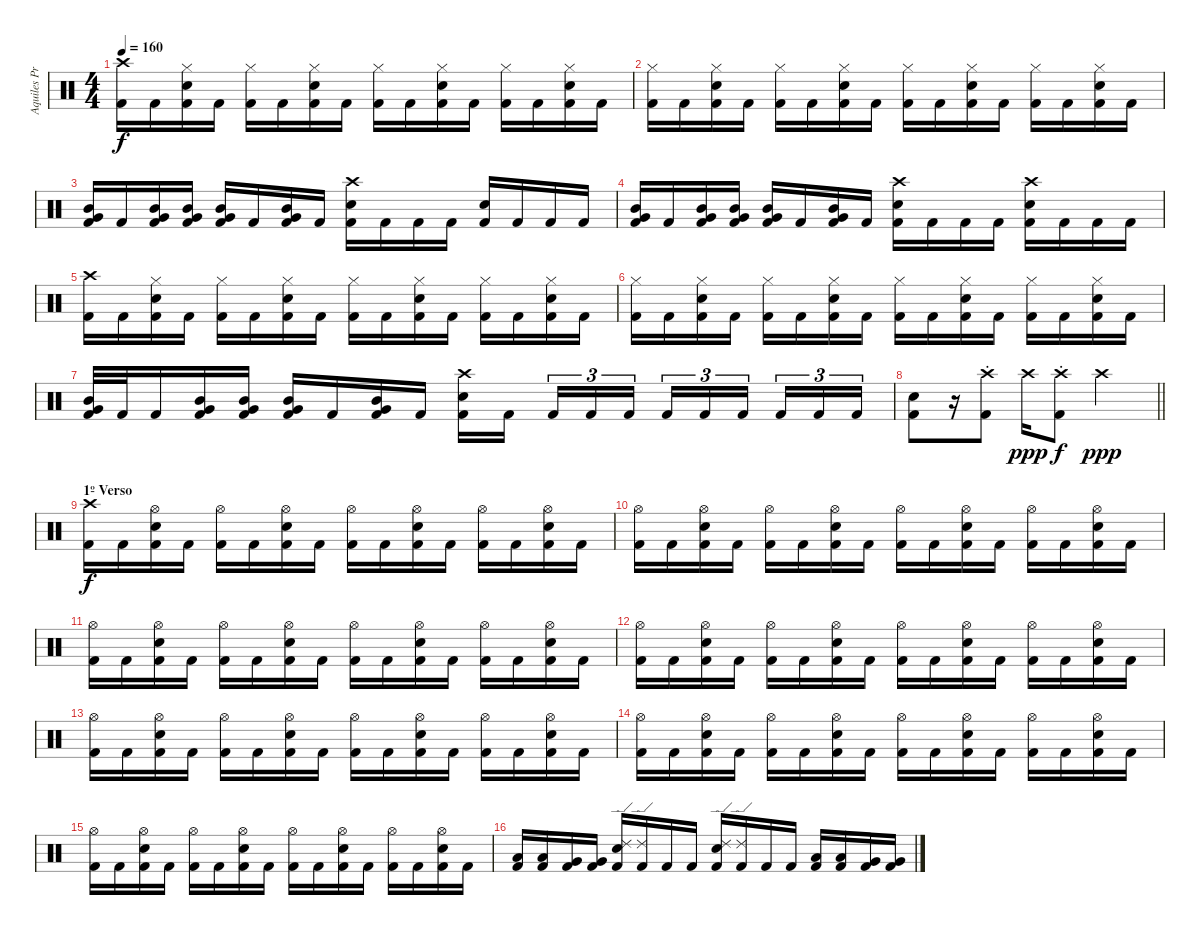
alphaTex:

\track ("Aquiles Priester" "Aquiles Pr") {instrument percussion}
\staff {score}
\articulation defaults
\ts (4 4)
\tempo 160
\clef neutral
\ks c
("Crash high (hit)" "Kick (hit) 2").16{dy f} "Kick (hit) 2".16 ("Hi-Hat (closed)" "Electric Snare (hit)" "Kick (hit) 2").16 "Kick (hit) 2".16 ("Hi-Hat (closed)" "Kick (hit) 2").16 "Kick (hit) 2".16 ("Hi-Hat (closed)" "Electric Snare (hit)" "Kick (hit) 2").16 "Kick (hit) 2".16 ("Hi-Hat (closed)" "Kick (hit) 2").16 "Kick (hit) 2".16 ("Hi-Hat (closed)" "Electric Snare (hit)" "Kick (hit) 2").16 "Kick (hit) 2".16 ("Hi-Hat (closed)" "Kick (hit) 2").16 "Kick (hit) 2".16 ("Hi-Hat (closed)" "Electric Snare (hit)" "Kick (hit) 2").16 "Kick (hit) 2".16 |
("Hi-Hat (closed)" "Kick (hit) 2").16 "Kick (hit) 2".16 ("Hi-Hat (closed)" "Electric Snare (hit)" "Kick (hit) 2").16 "Kick (hit) 2".16 ("Hi-Hat (closed)" "Kick (hit) 2").16 "Kick (hit) 2".16 ("Hi-Hat (closed)" "Electric Snare (hit)" "Kick (hit) 2").16 "Kick (hit) 2".16 ("Hi-Hat (closed)" "Kick (hit) 2").16 "Kick (hit) 2".16 ("Hi-Hat (closed)" "Electric Snare (hit)" "Kick (hit) 2").16 "Kick (hit) 2".16 ("Hi-Hat (closed)" "Kick (hit) 2").16 "Kick (hit) 2".16 ("Hi-Hat (closed)" "Electric Snare (hit)" "Kick (hit) 2").16 "Kick (hit) 2".16 |
("Mid Tom (hit)" "Very Low Tom (hit)" "Kick (hit) 2").16 "Kick (hit) 2".16 ("Mid Tom (hit)" "Very Low Tom (hit)" "Kick (hit) 2").16 ("Mid Tom (hit)" "Very Low Tom (hit)" "Kick (hit) 2").16 ("Mid Tom (hit)" "Very Low Tom (hit)" "Kick (hit) 2").16 "Kick (hit) 2".16 ("Mid Tom (hit)" "Very Low Tom (hit)" "Kick (hit) 2").16 "Kick (hit) 2".16 ("Crash high (hit)" "Electric Snare (hit)" "Kick (hit) 2").16 "Kick (hit) 2".16 "Kick (hit) 2".16 "Kick (hit) 2".16 ("Electric Snare (hit)" "Kick (hit) 2").16 "Kick (hit) 2".16 "Kick (hit) 2".16 "Kick (hit) 2".16 |
("Mid Tom (hit)" "Very Low Tom (hit)" "Kick (hit) 2").16 "Kick (hit) 2".16 ("Mid Tom (hit)" "Very Low Tom (hit)" "Kick (hit) 2").16 ("Mid Tom (hit)" "Very Low Tom (hit)" "Kick (hit) 2").16 ("Mid Tom (hit)" "Very Low Tom (hit)" "Kick (hit) 2").16 "Kick (hit) 2".16 ("Mid Tom (hit)" "Very Low Tom (hit)" "Kick (hit) 2").16 "Kick (hit) 2".16 ("Crash high (hit)" "Electric Snare (hit)" "Kick (hit) 2").16 "Kick (hit) 2".16 "Kick (hit) 2".16 "Kick (hit) 2".16 ("Crash high (hit)" "Electric Snare (hit)" "Kick (hit) 2").16 "Kick (hit) 2".16 "Kick (hit) 2".16 "Kick (hit) 2".16 |
("Crash high (hit)" "Kick (hit) 2").16 "Kick (hit) 2".16 ("Hi-Hat (closed)" "Electric Snare (hit)" "Kick (hit) 2").16 "Kick (hit) 2".16 ("Hi-Hat (closed)" "Kick (hit) 2").16 "Kick (hit) 2".16 ("Hi-Hat (closed)" "Electric Snare (hit)" "Kick (hit) 2").16 "Kick (hit) 2".16 ("Hi-Hat (closed)" "Kick (hit) 2").16 "Kick (hit) 2".16 ("Hi-Hat (closed)" "Electric Snare (hit)" "Kick (hit) 2").16 "Kick (hit) 2".16 ("Hi-Hat (closed)" "Kick (hit) 2").16 "Kick (hit) 2".16 ("Hi-Hat (closed)" "Electric Snare (hit)" "Kick (hit) 2").16 "Kick (hit) 2".16 |
("Hi-Hat (closed)" "Kick (hit) 2").16 "Kick (hit) 2".16 ("Hi-Hat (closed)" "Electric Snare (hit)" "Kick (hit) 2").16 "Kick (hit) 2".16 ("Hi-Hat (closed)" "Kick (hit) 2").16 "Kick (hit) 2".16 ("Hi-Hat (closed)" "Electric Snare (hit)" "Kick (hit) 2").16 "Kick (hit) 2".16 ("Hi-Hat (closed)" "Kick (hit) 2").16 "Kick (hit) 2".16 ("Hi-Hat (closed)" "Electric Snare (hit)" "Kick (hit) 2").16 "Kick (hit) 2".16 ("Hi-Hat (closed)" "Kick (hit) 2").16 "Kick (hit) 2".16 ("Hi-Hat (closed)" "Electric Snare (hit)" "Kick (hit) 2").16 "Kick (hit) 2".16 |
("Mid Tom (hit)" "Very Low Tom (hit)" "Kick (hit) 2").32 "Kick (hit) 2".32 "Kick (hit) 2".16 ("Mid Tom (hit)" "Very Low Tom (hit)" "Kick (hit) 2").16 ("Mid Tom (hit)" "Very Low Tom (hit)" "Kick (hit) 2").16 ("Mid Tom (hit)" "Very Low Tom (hit)" "Kick (hit) 2").16 "Kick (hit) 2".16 ("Mid Tom (hit)" "Very Low Tom (hit)" "Kick (hit) 2").16 "Kick (hit) 2".16 ("Crash high (hit)" "Electric Snare (hit)" "Kick (hit) 2").16 "Kick (hit) 2".16{beam splitsecondary} "Kick (hit) 2".16{tu (3 2)} "Kick (hit) 2".16{tu (3 2)} "Kick (hit) 2".16{tu (3 2)} "Kick (hit) 2".16{tu (3 2)} "Kick (hit) 2".16{tu (3 2)} "Kick (hit) 2".16{tu (3 2) beam splitsecondary} "Kick (hit) 2".16{tu (3 2)} "Kick (hit) 2".16{tu (3 2)} "Kick (hit) 2".16{tu (3 2)} |
\barLineRight lightlight
("Electric Snare (hit)" "Kick (hit) 2").8 r.16 ("Crash high (hit)"{st} "Kick (hit) 2").8 "Crash high (hit)".16{dy ppp} ("Crash high (hit)"{st} "Kick (hit) 2").8{dy f} "Crash high (hit)".2{dy ppp} |
\section ("" "1º Verso")
("Crash high (hit)" "Kick (hit) 2").16{dy f} "Kick (hit) 2".16 ("Hi-Hat (open)" "Electric Snare (hit)" "Kick (hit) 2").16 "Kick (hit) 2".16 ("Hi-Hat (open)" "Kick (hit) 2").16 "Kick (hit) 2".16 ("Hi-Hat (open)" "Electric Snare (hit)" "Kick (hit) 2").16 "Kick (hit) 2".16 ("Hi-Hat (open)" "Kick (hit) 2").16 "Kick (hit) 2".16 ("Hi-Hat (open)" "Electric Snare (hit)" "Kick (hit) 2").16 "Kick (hit) 2".16 ("Hi-Hat (open)" "Kick (hit) 2").16 "Kick (hit) 2".16 ("Hi-Hat (open)" "Electric Snare (hit)" "Kick (hit) 2").16 "Kick (hit) 2".16 |
("Hi-Hat (open)" "Kick (hit) 2").16 "Kick (hit) 2".16 ("Hi-Hat (open)" "Electric Snare (hit)" "Kick (hit) 2").16 "Kick (hit) 2".16 ("Hi-Hat (open)" "Kick (hit) 2").16 "Kick (hit) 2".16 ("Hi-Hat (open)" "Electric Snare (hit)" "Kick (hit) 2").16 "Kick (hit) 2".16 ("Hi-Hat (open)" "Kick (hit) 2").16 "Kick (hit) 2".16 ("Hi-Hat (open)" "Electric Snare (hit)" "Kick (hit) 2").16 "Kick (hit) 2".16 ("Hi-Hat (open)" "Kick (hit) 2").16 "Kick (hit) 2".16 ("Hi-Hat (open)" "Electric Snare (hit)" "Kick (hit) 2").16 "Kick (hit) 2".16 |
("Hi-Hat (open)" "Kick (hit) 2").16 "Kick (hit) 2".16 ("Hi-Hat (open)" "Electric Snare (hit)" "Kick (hit) 2").16 "Kick (hit) 2".16 ("Hi-Hat (open)" "Kick (hit) 2").16 "Kick (hit) 2".16 ("Hi-Hat (open)" "Electric Snare (hit)" "Kick (hit) 2").16 "Kick (hit) 2".16 ("Hi-Hat (open)" "Kick (hit) 2").16 "Kick (hit) 2".16 ("Hi-Hat (open)" "Electric Snare (hit)" "Kick (hit) 2").16 "Kick (hit) 2".16 ("Hi-Hat (open)" "Kick (hit) 2").16 "Kick (hit) 2".16 ("Hi-Hat (open)" "Electric Snare (hit)" "Kick (hit) 2").16 "Kick (hit) 2".16 |
("Hi-Hat (open)" "Kick (hit) 2").16 "Kick (hit) 2".16 ("Hi-Hat (open)" "Electric Snare (hit)" "Kick (hit) 2").16 "Kick (hit) 2".16 ("Hi-Hat (open)" "Kick (hit) 2").16 "Kick (hit) 2".16 ("Hi-Hat (open)" "Electric Snare (hit)" "Kick (hit) 2").16 "Kick (hit) 2".16 ("Hi-Hat (open)" "Kick (hit) 2").16 "Kick (hit) 2".16 ("Hi-Hat (open)" "Electric Snare (hit)" "Kick (hit) 2").16 "Kick (hit) 2".16 ("Hi-Hat (open)" "Kick (hit) 2").16 "Kick (hit) 2".16 ("Hi-Hat (open)" "Electric Snare (hit)" "Kick (hit) 2").16 "Kick (hit) 2".16 |
("Hi-Hat (open)" "Kick (hit) 2").16 "Kick (hit) 2".16 ("Hi-Hat (open)" "Electric Snare (hit)" "Kick (hit) 2").16 "Kick (hit) 2".16 ("Hi-Hat (open)" "Kick (hit) 2").16 "Kick (hit) 2".16 ("Hi-Hat (open)" "Electric Snare (hit)" "Kick (hit) 2").16 "Kick (hit) 2".16 ("Hi-Hat (open)" "Kick (hit) 2").16 "Kick (hit) 2".16 ("Hi-Hat (open)" "Electric Snare (hit)" "Kick (hit) 2").16 "Kick (hit) 2".16 ("Hi-Hat (open)" "Kick (hit) 2").16 "Kick (hit) 2".16 ("Hi-Hat (open)" "Electric Snare (hit)" "Kick (hit) 2").16 "Kick (hit) 2".16 |
("Hi-Hat (open)" "Kick (hit) 2").16 "Kick (hit) 2".16 ("Hi-Hat (open)" "Electric Snare (hit)" "Kick (hit) 2").16 "Kick (hit) 2".16 ("Hi-Hat (open)" "Kick (hit) 2").16 "Kick (hit) 2".16 ("Hi-Hat (open)" "Electric Snare (hit)" "Kick (hit) 2").16 "Kick (hit) 2".16 ("Hi-Hat (open)" "Kick (hit) 2").16 "Kick (hit) 2".16 ("Hi-Hat (open)" "Electric Snare (hit)" "Kick (hit) 2").16 "Kick (hit) 2".16 ("Hi-Hat (open)" "Kick (hit) 2").16 "Kick (hit) 2".16 ("Hi-Hat (open)" "Electric Snare (hit)" "Kick (hit) 2").16 "Kick (hit) 2".16 |
("Hi-Hat (open)" "Kick (hit) 2").16 "Kick (hit) 2".16 ("Hi-Hat (open)" "Electric Snare (hit)" "Kick (hit) 2").16 "Kick (hit) 2".16 ("Hi-Hat (open)" "Kick (hit) 2").16 "Kick (hit) 2".16 ("Hi-Hat (open)" "Electric Snare (hit)" "Kick (hit) 2").16 "Kick (hit) 2".16 ("Hi-Hat (open)" "Kick (hit) 2").16 "Kick (hit) 2".16 ("Hi-Hat (open)" "Electric Snare (hit)" "Kick (hit) 2").16 "Kick (hit) 2".16 ("Hi-Hat (open)" "Kick (hit) 2").16 "Kick (hit) 2".16 ("Hi-Hat (open)" "Electric Snare (hit)" "Kick (hit) 2").16 "Kick (hit) 2".16 |
("Low Tom (hit)" "Kick (hit) 2").16 ("Low Tom (hit)" "Kick (hit) 2").16 ("Very Low Tom (hit)" "Kick (hit) 2").16 ("Very Low Tom (hit)" "Kick (hit) 2").16 ("Ride (edge) 2" "Electric Snare (hit)" "Kick (hit) 2").16 ("Ride (edge) 2" "Kick (hit) 2").16 "Kick (hit) 2".16 "Kick (hit) 2".16 ("Ride (edge) 2" "Electric Snare (hit)" "Kick (hit) 2").16 ("Ride (edge) 2" "Kick (hit) 2").16 "Kick (hit) 2".16 "Kick (hit) 2".16 ("Low Tom (hit)" "Kick (hit) 2").16 ("Low Tom (hit)" "Kick (hit) 2").16 ("Very Low Tom (hit)" "Kick (hit) 2").16 ("Very Low Tom (hit)" "Kick (hit) 2").16
